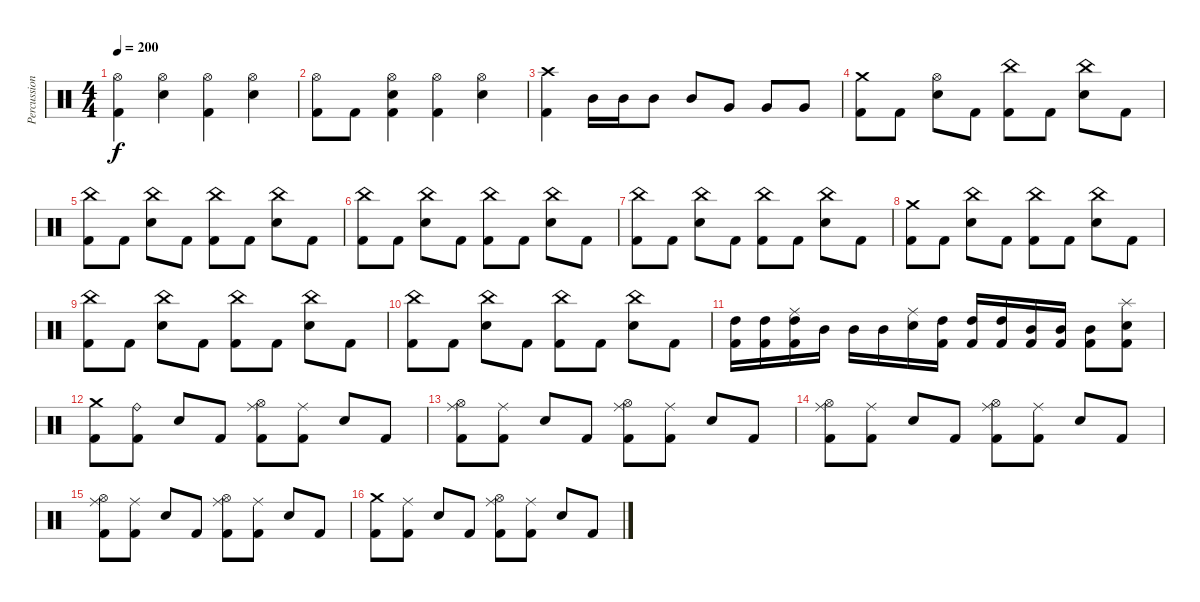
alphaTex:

\track ("Percussion" "Percussion") {instrument percussion}
\staff {score}
\articulation defaults
\ts (4 4)
\tempo 200
\clef neutral
\ks c
("Hi-Hat (open)" "Kick (hit) 2").4{dy f} ("Hi-Hat (open)" "Snare (hit) 2").4 ("Hi-Hat (open)" "Kick (hit) 2").4 ("Hi-Hat (open)" "Snare (hit) 2").4 |
("Hi-Hat (open)" "Kick (hit) 2").8 "Kick (hit) 2".8 ("Hi-Hat (open)" "Snare (hit) 2" "Kick (hit) 2").4 ("Hi-Hat (open)" "Kick (hit) 2").4 ("Hi-Hat (open)" "Snare (hit) 2").4 |
("Crash high (hit)" "Kick (hit) 2").4 "Mid Tom (hit)".16 "Mid Tom (hit)".16 "Mid Tom (hit)".8 "Mid Tom (hit)".8 "Very Low Tom (hit)".8 "Very Low Tom (hit)".8 "Very Low Tom (hit)".8 |
("Crash medium (hit)" "Kick (hit) 2").8 "Kick (hit) 2".8 ("Hi-Hat (open)" "Snare (hit) 2").8 "Kick (hit) 2".8 ("China (hit)" "Kick (hit) 2").8 "Kick (hit) 2".8 ("China (hit)" "Snare (hit) 2").8 "Kick (hit) 2".8 |
("China (hit)" "Kick (hit) 2").8 "Kick (hit) 2".8 ("China (hit)" "Snare (hit) 2").8 "Kick (hit) 2".8 ("China (hit)" "Kick (hit) 2").8 "Kick (hit) 2".8 ("China (hit)" "Snare (hit) 2").8 "Kick (hit) 2".8 |
("China (hit)" "Kick (hit) 2").8 "Kick (hit) 2".8 ("China (hit)" "Snare (hit) 2").8 "Kick (hit) 2".8 ("China (hit)" "Kick (hit) 2").8 "Kick (hit) 2".8 ("China (hit)" "Snare (hit) 2").8 "Kick (hit) 2".8 |
("China (hit)" "Kick (hit) 2").8 "Kick (hit) 2".8 ("China (hit)" "Snare (hit) 2").8 "Kick (hit) 2".8 ("China (hit)" "Kick (hit) 2").8 "Kick (hit) 2".8 ("China (hit)" "Snare (hit) 2").8 "Kick (hit) 2".8 |
("Crash medium (hit)" "Kick (hit) 2").8 "Kick (hit) 2".8 ("China (hit)" "Snare (hit) 2").8 "Kick (hit) 2".8 ("China (hit)" "Kick (hit) 2").8 "Kick (hit) 2".8 ("China (hit)" "Snare (hit) 2").8 "Kick (hit) 2".8 |
("China (hit)" "Kick (hit) 2").8 "Kick (hit) 2".8 ("China (hit)" "Snare (hit) 2").8 "Kick (hit) 2".8 ("China (hit)" "Kick (hit) 2").8 "Kick (hit) 2".8 ("China (hit)" "Snare (hit) 2").8 "Kick (hit) 2".8 |
("China (hit)" "Kick (hit) 2").8 "Kick (hit) 2".8 ("China (hit)" "Snare (hit) 2").8 "Kick (hit) 2".8 ("China (hit)" "Kick (hit) 2").8 "Kick (hit) 2".8 ("China (hit)" "Snare (hit) 2").8 "Kick (hit) 2".8 |
("High Tom (hit)" "Kick (hit) 2").16 ("High Tom (hit)" "Kick (hit) 2").16 ("Ride (middle)" "High Tom (hit)" "Kick (hit) 2").16 "Mid Tom (hit)".16 "Mid Tom (hit)".16 "Mid Tom (hit)".16 ("Ride (middle)" "Snare (hit) 2").16 ("High Tom (hit)" "Kick (hit) 2").16 ("High Tom (hit)" "Kick (hit) 2").16 ("High Tom (hit)" "Kick (hit) 2").16 ("Mid Tom (hit)" "Kick (hit) 2").16 ("Mid Tom (hit)" "Kick (hit) 2").16 ("Mid Tom (hit)" "Kick (hit) 2").8 ("Splash (hit)" "Snare (hit) 2" "Kick (hit) 2").8 |
("Crash medium (hit)" "Kick (hit) 2").8 ("Ride (bell)" "Kick (hit) 2").8 "Snare (hit) 2".8 "Kick (hit) 2".8 ("Ride (middle)" "Hi-Hat (open)" "Kick (hit) 2").8 ("Ride (middle)" "Kick (hit) 2").8 "Snare (hit) 2".8 "Kick (hit) 2".8 |
("Ride (middle)" "Hi-Hat (open)" "Kick (hit) 2").8 ("Ride (middle)" "Kick (hit) 2").8 "Snare (hit) 2".8 "Kick (hit) 2".8 ("Ride (middle)" "Hi-Hat (open)" "Kick (hit) 2").8 ("Ride (middle)" "Kick (hit) 2").8 "Snare (hit) 2".8 "Kick (hit) 2".8 |
("Ride (middle)" "Hi-Hat (open)" "Kick (hit) 2").8 ("Ride (middle)" "Kick (hit) 2").8 "Snare (hit) 2".8 "Kick (hit) 2".8 ("Ride (middle)" "Hi-Hat (open)" "Kick (hit) 2").8 ("Ride (middle)" "Kick (hit) 2").8 "Snare (hit) 2".8 "Kick (hit) 2".8 |
("Ride (middle)" "Hi-Hat (open)" "Kick (hit) 2").8 ("Ride (middle)" "Kick (hit) 2").8 "Snare (hit) 2".8 "Kick (hit) 2".8 ("Ride (middle)" "Hi-Hat (open)" "Kick (hit) 2").8 ("Ride (middle)" "Kick (hit) 2").8 "Snare (hit) 2".8 "Kick (hit) 2".8 |
("Crash medium (hit)" "Kick (hit) 2").8 ("Ride (middle)" "Kick (hit) 2").8 "Snare (hit) 2".8 "Kick (hit) 2".8 ("Ride (middle)" "Hi-Hat (open)" "Kick (hit) 2").8 ("Ride (middle)" "Kick (hit) 2").8 "Snare (hit) 2".8 "Kick (hit) 2".8
